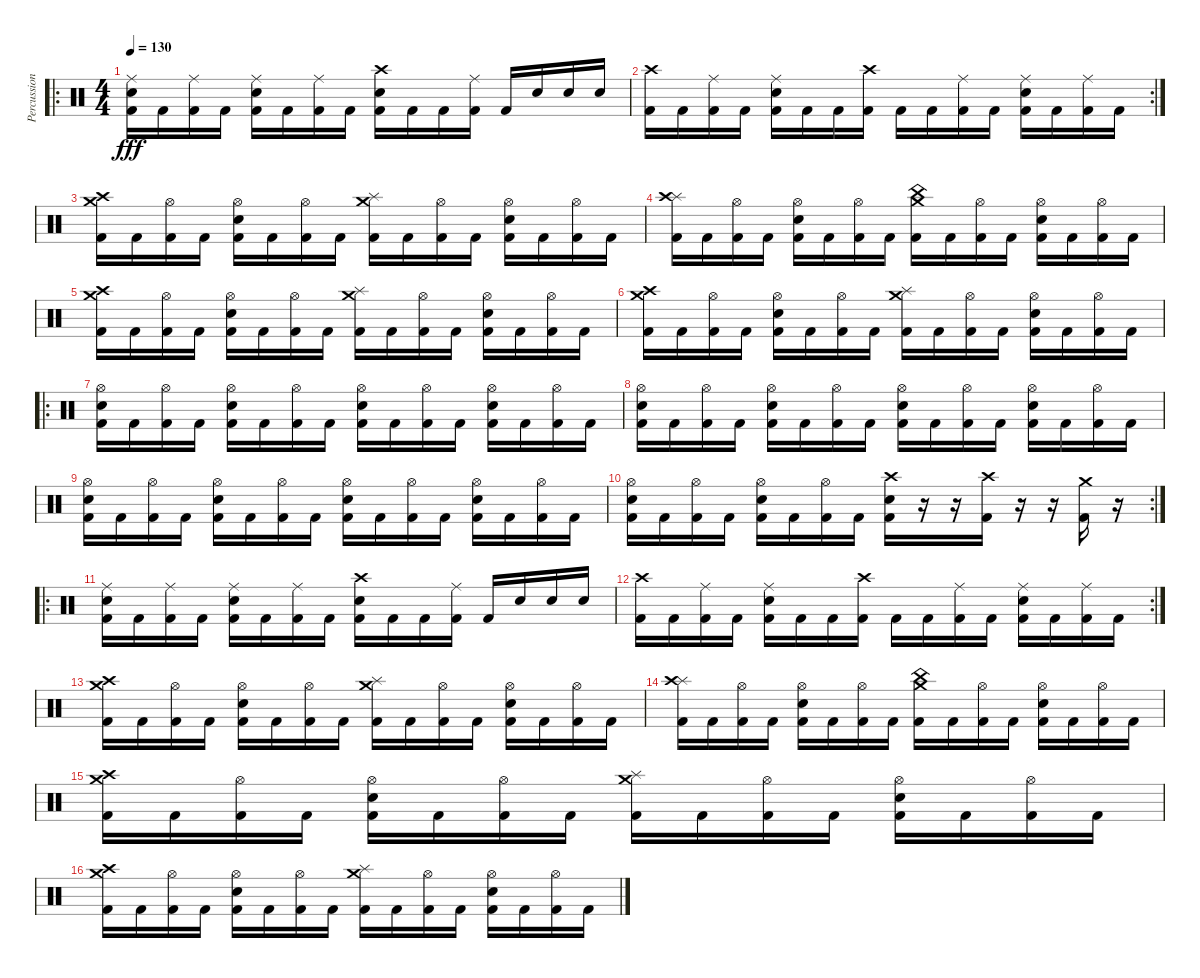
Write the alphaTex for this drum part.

\track ("Percussion" "Percussion") {instrument percussion}
\staff {score}
\articulation defaults
\ro
\ts (4 4)
\tempo 130
\clef neutral
\ks c
("Kick (hit) 2" "Snare (hit) 2" "Ride (middle)").16{dy fff} "Kick (hit) 2".16 ("Kick (hit) 2" "Ride (middle)").16 "Kick (hit) 2".16 ("Kick (hit) 2" "Snare (hit) 2" "Ride (middle)").16 "Kick (hit) 2".16 ("Kick (hit) 2" "Ride (middle)").16 "Kick (hit) 2".16 ("Kick (hit) 2" "Snare (hit) 2" "Crash high (hit)").16 "Kick (hit) 2".16 "Kick (hit) 2".16 ("Kick (hit) 2" "Ride (middle)").16 "Kick (hit) 2".16 "Snare (hit) 2".16 "Snare (hit) 2".16 "Snare (hit) 2".16 |
\rc 2
("Kick (hit) 2" "Crash high (hit)").16 "Kick (hit) 2".16 ("Kick (hit) 2" "Ride (middle)").16 "Kick (hit) 2".16 ("Kick (hit) 2" "Snare (hit) 2" "Ride (middle)").16 "Kick (hit) 2".16 "Kick (hit) 2".16 ("Kick (hit) 2" "Crash high (hit)").16 "Kick (hit) 2".16 "Kick (hit) 2".16 ("Kick (hit) 2" "Ride (middle)").16 "Kick (hit) 2".16 ("Kick (hit) 2" "Snare (hit) 2" "Ride (middle)").16 "Kick (hit) 2".16 ("Kick (hit) 2" "Ride (middle)").16 "Kick (hit) 2".16 |
("Kick (hit) 2" "Crash medium (hit)" "Crash high (hit)").16 "Kick (hit) 2".16 ("Kick (hit) 2" "Hi-Hat (open)").16 "Kick (hit) 2".16 ("Kick (hit) 2" "Snare (hit) 2" "Hi-Hat (open)").16 "Kick (hit) 2".16 ("Kick (hit) 2" "Hi-Hat (open)").16 "Kick (hit) 2".16 ("Kick (hit) 2" "Crash medium (hit)" "Splash (hit)").16 "Kick (hit) 2".16 ("Kick (hit) 2" "Hi-Hat (open)").16 "Kick (hit) 2".16 ("Kick (hit) 2" "Snare (hit) 2" "Hi-Hat (open)").16 "Kick (hit) 2".16 ("Kick (hit) 2" "Hi-Hat (open)").16 "Kick (hit) 2".16 |
("Kick (hit) 2" "Splash (hit)" "Crash high (hit)").16 "Kick (hit) 2".16 ("Kick (hit) 2" "Hi-Hat (open)").16 "Kick (hit) 2".16 ("Kick (hit) 2" "Snare (hit) 2" "Hi-Hat (open)").16 "Kick (hit) 2".16 ("Kick (hit) 2" "Hi-Hat (open)").16 "Kick (hit) 2".16 ("Kick (hit) 2" "Crash medium (hit)" "China (hit)").16 "Kick (hit) 2".16 ("Kick (hit) 2" "Hi-Hat (open)").16 "Kick (hit) 2".16 ("Kick (hit) 2" "Snare (hit) 2" "Hi-Hat (open)").16 "Kick (hit) 2".16 ("Kick (hit) 2" "Hi-Hat (open)").16 "Kick (hit) 2".16 |
("Kick (hit) 2" "Crash medium (hit)" "Crash high (hit)").16 "Kick (hit) 2".16 ("Kick (hit) 2" "Hi-Hat (open)").16 "Kick (hit) 2".16 ("Kick (hit) 2" "Snare (hit) 2" "Hi-Hat (open)").16 "Kick (hit) 2".16 ("Kick (hit) 2" "Hi-Hat (open)").16 "Kick (hit) 2".16 ("Kick (hit) 2" "Crash medium (hit)" "Splash (hit)").16 "Kick (hit) 2".16 ("Kick (hit) 2" "Hi-Hat (open)").16 "Kick (hit) 2".16 ("Kick (hit) 2" "Snare (hit) 2" "Hi-Hat (open)").16 "Kick (hit) 2".16 ("Kick (hit) 2" "Hi-Hat (open)").16 "Kick (hit) 2".16 |
("Kick (hit) 2" "Crash medium (hit)" "Crash high (hit)").16 "Kick (hit) 2".16 ("Kick (hit) 2" "Hi-Hat (open)").16 "Kick (hit) 2".16 ("Kick (hit) 2" "Snare (hit) 2" "Hi-Hat (open)").16 "Kick (hit) 2".16 ("Kick (hit) 2" "Hi-Hat (open)").16 "Kick (hit) 2".16 ("Kick (hit) 2" "Crash medium (hit)" "Splash (hit)").16 "Kick (hit) 2".16 ("Kick (hit) 2" "Hi-Hat (open)").16 "Kick (hit) 2".16 ("Kick (hit) 2" "Snare (hit) 2" "Hi-Hat (open)").16 "Kick (hit) 2".16 ("Kick (hit) 2" "Hi-Hat (open)").16 "Kick (hit) 2".16 |
\ro
("Kick (hit) 2" "Snare (hit) 2" "Hi-Hat (open)").16 "Kick (hit) 2".16 ("Kick (hit) 2" "Hi-Hat (open)").16 "Kick (hit) 2".16 ("Kick (hit) 2" "Snare (hit) 2" "Hi-Hat (open)").16 "Kick (hit) 2".16 ("Kick (hit) 2" "Hi-Hat (open)").16 "Kick (hit) 2".16 ("Kick (hit) 2" "Snare (hit) 2" "Hi-Hat (open)").16 "Kick (hit) 2".16 ("Kick (hit) 2" "Hi-Hat (open)").16 "Kick (hit) 2".16 ("Kick (hit) 2" "Snare (hit) 2" "Hi-Hat (open)").16 "Kick (hit) 2".16 ("Kick (hit) 2" "Hi-Hat (open)").16 "Kick (hit) 2".16 |
("Kick (hit) 2" "Snare (hit) 2" "Hi-Hat (open)").16 "Kick (hit) 2".16 ("Kick (hit) 2" "Hi-Hat (open)").16 "Kick (hit) 2".16 ("Kick (hit) 2" "Snare (hit) 2" "Hi-Hat (open)").16 "Kick (hit) 2".16 ("Kick (hit) 2" "Hi-Hat (open)").16 "Kick (hit) 2".16 ("Kick (hit) 2" "Snare (hit) 2" "Hi-Hat (open)").16 "Kick (hit) 2".16 ("Kick (hit) 2" "Hi-Hat (open)").16 "Kick (hit) 2".16 ("Kick (hit) 2" "Snare (hit) 2" "Hi-Hat (open)").16 "Kick (hit) 2".16 ("Kick (hit) 2" "Hi-Hat (open)").16 "Kick (hit) 2".16 |
("Kick (hit) 2" "Snare (hit) 2" "Hi-Hat (open)").16 "Kick (hit) 2".16 ("Kick (hit) 2" "Hi-Hat (open)").16 "Kick (hit) 2".16 ("Kick (hit) 2" "Snare (hit) 2" "Hi-Hat (open)").16 "Kick (hit) 2".16 ("Kick (hit) 2" "Hi-Hat (open)").16 "Kick (hit) 2".16 ("Kick (hit) 2" "Snare (hit) 2" "Hi-Hat (open)").16 "Kick (hit) 2".16 ("Kick (hit) 2" "Hi-Hat (open)").16 "Kick (hit) 2".16 ("Kick (hit) 2" "Snare (hit) 2" "Hi-Hat (open)").16 "Kick (hit) 2".16 ("Kick (hit) 2" "Hi-Hat (open)").16 "Kick (hit) 2".16 |
\rc 2
("Kick (hit) 2" "Snare (hit) 2" "Hi-Hat (open)").16 "Kick (hit) 2".16 ("Kick (hit) 2" "Hi-Hat (open)").16 "Kick (hit) 2".16 ("Kick (hit) 2" "Snare (hit) 2" "Hi-Hat (open)").16 "Kick (hit) 2".16 ("Kick (hit) 2" "Hi-Hat (open)").16 "Kick (hit) 2".16 ("Kick (hit) 2" "Snare (hit) 2" "Crash high (hit)").16 r.16 r.16 ("Kick (hit) 2" "Crash high (hit)").16 r.16 r.16 ("Kick (hit) 2" "Crash medium (hit)").16 r.16 |
\ro
("Kick (hit) 2" "Snare (hit) 2" "Ride (middle)").16 "Kick (hit) 2".16 ("Kick (hit) 2" "Ride (middle)").16 "Kick (hit) 2".16 ("Kick (hit) 2" "Snare (hit) 2" "Ride (middle)").16 "Kick (hit) 2".16 ("Kick (hit) 2" "Ride (middle)").16 "Kick (hit) 2".16 ("Kick (hit) 2" "Snare (hit) 2" "Crash high (hit)").16 "Kick (hit) 2".16 "Kick (hit) 2".16 ("Kick (hit) 2" "Ride (middle)").16 "Kick (hit) 2".16 "Snare (hit) 2".16 "Snare (hit) 2".16 "Snare (hit) 2".16 |
\rc 2
("Kick (hit) 2" "Crash high (hit)").16 "Kick (hit) 2".16 ("Kick (hit) 2" "Ride (middle)").16 "Kick (hit) 2".16 ("Kick (hit) 2" "Snare (hit) 2" "Ride (middle)").16 "Kick (hit) 2".16 "Kick (hit) 2".16 ("Kick (hit) 2" "Crash high (hit)").16 "Kick (hit) 2".16 "Kick (hit) 2".16 ("Kick (hit) 2" "Ride (middle)").16 "Kick (hit) 2".16 ("Kick (hit) 2" "Snare (hit) 2" "Ride (middle)").16 "Kick (hit) 2".16 ("Kick (hit) 2" "Ride (middle)").16 "Kick (hit) 2".16 |
("Kick (hit) 2" "Crash medium (hit)" "Crash high (hit)").16 "Kick (hit) 2".16 ("Kick (hit) 2" "Hi-Hat (open)").16 "Kick (hit) 2".16 ("Kick (hit) 2" "Snare (hit) 2" "Hi-Hat (open)").16 "Kick (hit) 2".16 ("Kick (hit) 2" "Hi-Hat (open)").16 "Kick (hit) 2".16 ("Kick (hit) 2" "Crash medium (hit)" "Splash (hit)").16 "Kick (hit) 2".16 ("Kick (hit) 2" "Hi-Hat (open)").16 "Kick (hit) 2".16 ("Kick (hit) 2" "Snare (hit) 2" "Hi-Hat (open)").16 "Kick (hit) 2".16 ("Kick (hit) 2" "Hi-Hat (open)").16 "Kick (hit) 2".16 |
("Kick (hit) 2" "Splash (hit)" "Crash high (hit)").16 "Kick (hit) 2".16 ("Kick (hit) 2" "Hi-Hat (open)").16 "Kick (hit) 2".16 ("Kick (hit) 2" "Snare (hit) 2" "Hi-Hat (open)").16 "Kick (hit) 2".16 ("Kick (hit) 2" "Hi-Hat (open)").16 "Kick (hit) 2".16 ("Kick (hit) 2" "Crash medium (hit)" "China (hit)").16 "Kick (hit) 2".16 ("Kick (hit) 2" "Hi-Hat (open)").16 "Kick (hit) 2".16 ("Kick (hit) 2" "Snare (hit) 2" "Hi-Hat (open)").16 "Kick (hit) 2".16 ("Kick (hit) 2" "Hi-Hat (open)").16 "Kick (hit) 2".16 |
("Kick (hit) 2" "Crash medium (hit)" "Crash high (hit)").16 "Kick (hit) 2".16 ("Kick (hit) 2" "Hi-Hat (open)").16 "Kick (hit) 2".16 ("Kick (hit) 2" "Snare (hit) 2" "Hi-Hat (open)").16 "Kick (hit) 2".16 ("Kick (hit) 2" "Hi-Hat (open)").16 "Kick (hit) 2".16 ("Kick (hit) 2" "Crash medium (hit)" "Splash (hit)").16 "Kick (hit) 2".16 ("Kick (hit) 2" "Hi-Hat (open)").16 "Kick (hit) 2".16 ("Kick (hit) 2" "Snare (hit) 2" "Hi-Hat (open)").16 "Kick (hit) 2".16 ("Kick (hit) 2" "Hi-Hat (open)").16 "Kick (hit) 2".16 |
("Kick (hit) 2" "Crash medium (hit)" "Crash high (hit)").16 "Kick (hit) 2".16 ("Kick (hit) 2" "Hi-Hat (open)").16 "Kick (hit) 2".16 ("Kick (hit) 2" "Snare (hit) 2" "Hi-Hat (open)").16 "Kick (hit) 2".16 ("Kick (hit) 2" "Hi-Hat (open)").16 "Kick (hit) 2".16 ("Kick (hit) 2" "Crash medium (hit)" "Splash (hit)").16 "Kick (hit) 2".16 ("Kick (hit) 2" "Hi-Hat (open)").16 "Kick (hit) 2".16 ("Kick (hit) 2" "Snare (hit) 2" "Hi-Hat (open)").16 "Kick (hit) 2".16 ("Kick (hit) 2" "Hi-Hat (open)").16 "Kick (hit) 2".16
